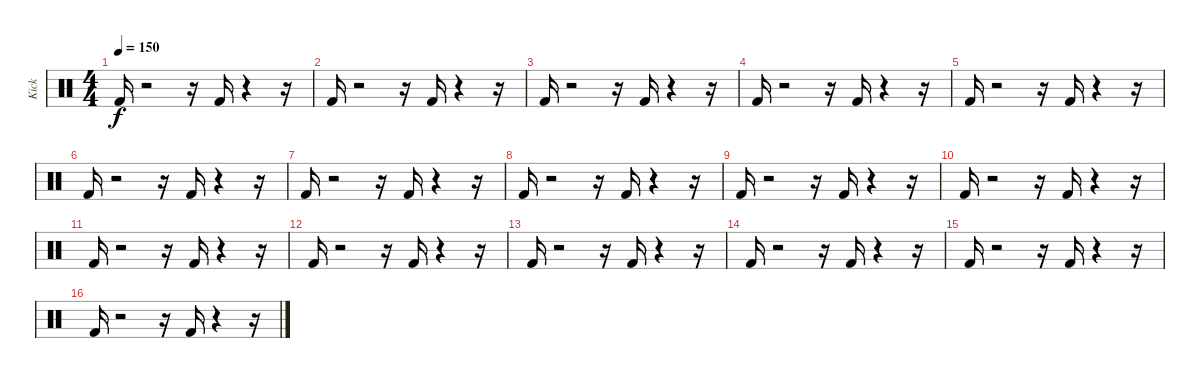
\track ("Kick" "Kick") {instrument percussion}
\staff {score}
\articulation defaults
\ts (4 4)
\tempo 150
\clef neutral
\ks c "Kick (hit) 2".16{dy f}
r.2 r.16 "Kick (hit) 2".16 r.4 r.16 |
"Kick (hit) 2".16 r.2 r.16 "Kick (hit) 2".16 r.4 r.16 |
"Kick (hit) 2".16 r.2 r.16 "Kick (hit) 2".16 r.4 r.16 |
"Kick (hit) 2".16 r.2 r.16 "Kick (hit) 2".16 r.4 r.16 |
"Kick (hit) 2".16 r.2 r.16 "Kick (hit) 2".16 r.4 r.16 |
"Kick (hit) 2".16 r.2 r.16 "Kick (hit) 2".16 r.4 r.16 |
"Kick (hit) 2".16 r.2 r.16 "Kick (hit) 2".16 r.4 r.16 |
"Kick (hit) 2".16 r.2 r.16 "Kick (hit) 2".16 r.4 r.16 |
"Kick (hit) 2".16 r.2 r.16 "Kick (hit) 2".16 r.4 r.16 |
"Kick (hit) 2".16 r.2 r.16 "Kick (hit) 2".16 r.4 r.16 |
"Kick (hit) 2".16 r.2 r.16 "Kick (hit) 2".16 r.4 r.16 |
"Kick (hit) 2".16 r.2 r.16 "Kick (hit) 2".16 r.4 r.16 |
"Kick (hit) 2".16 r.2 r.16 "Kick (hit) 2".16 r.4 r.16 |
"Kick (hit) 2".16 r.2 r.16 "Kick (hit) 2".16 r.4 r.16 |
"Kick (hit) 2".16 r.2 r.16 "Kick (hit) 2".16 r.4 r.16 |
"Kick (hit) 2".16 r.2 r.16 "Kick (hit) 2".16 r.4 r.16
